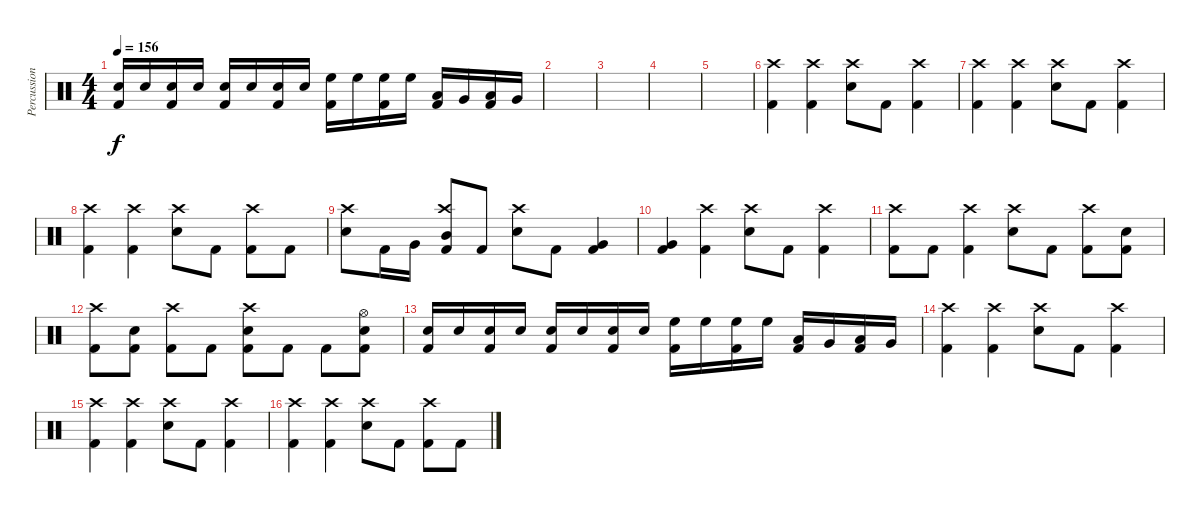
\track ("Percussion" "Percussion") {instrument percussion}
\staff {score}
\articulation defaults
\ts (4 4)
\tempo 156
\clef neutral
\ks c
("Kick (hit) 2" "Electric Snare (hit)").16{dy f} "Electric Snare (hit)".16 ("Kick (hit) 2" "Electric Snare (hit)").16 "Electric Snare (hit)".16 ("Kick (hit) 2" "Electric Snare (hit)").16 "Electric Snare (hit)".16 ("Kick (hit) 2" "Electric Snare (hit)").16 "Electric Snare (hit)".16 ("Kick (hit) 2" "High Floor Tom (hit)").16 "High Floor Tom (hit)".16 ("Kick (hit) 2" "High Floor Tom (hit)").16 "High Floor Tom (hit)".16 ("Kick (hit) 2" "Low Tom (hit)").16 "Very Low Tom (hit)".16 ("Kick (hit) 2" "Low Tom (hit)").16 "Very Low Tom (hit)".16 |
|
|
|
|
("Kick (hit) 2" "Crash high (hit)").4 ("Kick (hit) 2" "Crash high (hit)").4 ("Electric Snare (hit)" "Crash high (hit)").8 "Kick (hit) 2".8 ("Kick (hit) 2" "Crash high (hit)").4 |
("Kick (hit) 2" "Crash high (hit)").4 ("Kick (hit) 2" "Crash high (hit)").4 ("Electric Snare (hit)" "Crash high (hit)").8 "Kick (hit) 2".8 ("Kick (hit) 2" "Crash high (hit)").4 |
("Kick (hit) 2" "Crash high (hit)").4 ("Kick (hit) 2" "Crash high (hit)").4 ("Electric Snare (hit)" "Crash high (hit)").8 "Kick (hit) 2".8 ("Kick (hit) 2" "Crash high (hit)").8 "Kick (hit) 2".8 |
("Electric Snare (hit)" "Crash high (hit)").8 "Kick (hit) 2".16 "Very Low Tom (hit)".16 ("Kick (hit) 2" "Mid Tom (hit)" "Crash high (hit)").8 "Kick (hit) 2".8 ("Electric Snare (hit)" "Crash high (hit)").8 "Kick (hit) 2".8 ("Kick (hit) 2" "Very Low Tom (hit)").4 |
("Kick (hit) 2" "Very Low Tom (hit)").4 ("Kick (hit) 2" "Crash high (hit)").4 ("Electric Snare (hit)" "Crash high (hit)").8 "Kick (hit) 2".8 ("Kick (hit) 2" "Crash high (hit)").4 |
("Kick (hit) 2" "Crash high (hit)").8 "Kick (hit) 2".8 ("Kick (hit) 2" "Crash high (hit)").4 ("Electric Snare (hit)" "Crash high (hit)").8 "Kick (hit) 2".8 ("Kick (hit) 2" "Crash high (hit)").8 ("Kick (hit) 2" "Electric Snare (hit)").8 |
("Kick (hit) 2" "Crash high (hit)").8 ("Kick (hit) 2" "Electric Snare (hit)").8 ("Kick (hit) 2" "Crash high (hit)").8 "Kick (hit) 2".8 ("Kick (hit) 2" "Electric Snare (hit)" "Crash high (hit)").8 "Kick (hit) 2".8 "Kick (hit) 2".8 ("Kick (hit) 2" "Electric Snare (hit)" "Hi-Hat (open)").8 |
("Kick (hit) 2" "Electric Snare (hit)").16 "Electric Snare (hit)".16 ("Kick (hit) 2" "Electric Snare (hit)").16 "Electric Snare (hit)".16 ("Kick (hit) 2" "Electric Snare (hit)").16 "Electric Snare (hit)".16 ("Kick (hit) 2" "Electric Snare (hit)").16 "Electric Snare (hit)".16 ("Kick (hit) 2" "High Floor Tom (hit)").16 "High Floor Tom (hit)".16 ("Kick (hit) 2" "High Floor Tom (hit)").16 "High Floor Tom (hit)".16 ("Kick (hit) 2" "Low Tom (hit)").16 "Very Low Tom (hit)".16 ("Kick (hit) 2" "Low Tom (hit)").16 "Very Low Tom (hit)".16 |
("Kick (hit) 2" "Crash high (hit)").4 ("Kick (hit) 2" "Crash high (hit)").4 ("Electric Snare (hit)" "Crash high (hit)").8 "Kick (hit) 2".8 ("Kick (hit) 2" "Crash high (hit)").4 |
("Kick (hit) 2" "Crash high (hit)").4 ("Kick (hit) 2" "Crash high (hit)").4 ("Electric Snare (hit)" "Crash high (hit)").8 "Kick (hit) 2".8 ("Kick (hit) 2" "Crash high (hit)").4 |
("Kick (hit) 2" "Crash high (hit)").4 ("Kick (hit) 2" "Crash high (hit)").4 ("Electric Snare (hit)" "Crash high (hit)").8 "Kick (hit) 2".8 ("Kick (hit) 2" "Crash high (hit)").8 "Kick (hit) 2".8
